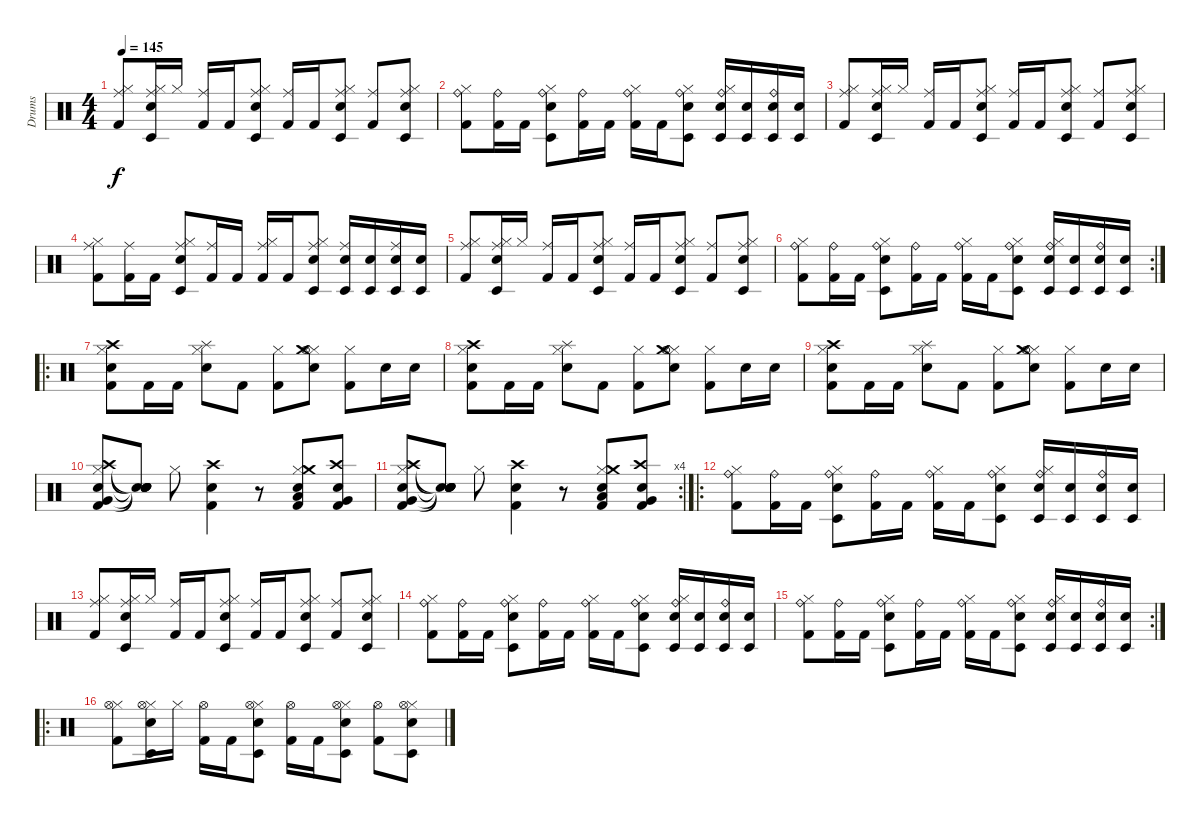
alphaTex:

\track ("Drums" "Drums") {instrument percussion}
\staff {score}
\articulation defaults
\ts (4 4)
\tempo 145
\clef neutral
\ks c
("Kick (hit) 2" "Hi-Hat (closed)" "Ride (middle)").8{dy f} ("Electric Snare (hit)" "Hi-Hat (closed)" "Timbale low (hit)" "Ride (middle)").16 "Hi-Hat (closed)".16 ("Kick (hit) 2" "Ride (middle)").16 "Kick (hit) 2".16 ("Electric Snare (hit)" "Hi-Hat (closed)" "Timbale low (hit)" "Ride (middle)").8 ("Kick (hit) 2" "Ride (middle)").16 "Kick (hit) 2".16 ("Electric Snare (hit)" "Hi-Hat (closed)" "Timbale low (hit)" "Ride (middle)").8 ("Kick (hit) 2" "Ride (middle)").8 ("Electric Snare (hit)" "Hi-Hat (closed)" "Timbale low (hit)" "Ride (middle)").8 |
("Kick (hit) 2" "Hi-Hat (closed)" "Ride (bell)").8 ("Kick (hit) 2" "Ride (bell)").16 "Kick (hit) 2".16 ("Electric Snare (hit)" "Hi-Hat (closed)" "Ride (bell)" "Timbale low (hit)").8 ("Kick (hit) 2" "Ride (bell)").16 "Kick (hit) 2".16 ("Kick (hit) 2" "Hi-Hat (closed)" "Ride (bell)").16 "Kick (hit) 2".16 ("Electric Snare (hit)" "Hi-Hat (closed)" "Timbale low (hit)" "Ride (bell)").8 ("Hi-Hat (closed)" "Electric Snare (hit)" "Timbale low (hit)" "Ride (bell)").16 ("Electric Snare (hit)" "Timbale low (hit)").16 ("Electric Snare (hit)" "Timbale low (hit)" "Ride (bell)").16 ("Electric Snare (hit)" "Timbale low (hit)").16 |
("Kick (hit) 2" "Hi-Hat (closed)" "Ride (middle)").8 ("Electric Snare (hit)" "Hi-Hat (closed)" "Timbale low (hit)" "Ride (middle)").16 "Hi-Hat (closed)".16 ("Kick (hit) 2" "Ride (middle)").16 "Kick (hit) 2".16 ("Electric Snare (hit)" "Hi-Hat (closed)" "Timbale low (hit)" "Ride (middle)").8 ("Kick (hit) 2" "Ride (middle)").16 "Kick (hit) 2".16 ("Electric Snare (hit)" "Hi-Hat (closed)" "Timbale low (hit)" "Ride (middle)").8 ("Kick (hit) 2" "Ride (middle)").8 ("Electric Snare (hit)" "Hi-Hat (closed)" "Timbale low (hit)" "Ride (middle)").8 |
("Kick (hit) 2" "Hi-Hat (closed)" "Ride (middle)").8 ("Kick (hit) 2" "Ride (middle)").16 "Kick (hit) 2".16 ("Electric Snare (hit)" "Hi-Hat (closed)" "Timbale low (hit)" "Ride (middle)").8 ("Kick (hit) 2" "Ride (middle)").16 "Kick (hit) 2".16 ("Kick (hit) 2" "Hi-Hat (closed)" "Ride (middle)").16 "Kick (hit) 2".16 ("Electric Snare (hit)" "Hi-Hat (closed)" "Ride (middle)" "Timbale low (hit)").8 ("Electric Snare (hit)" "Timbale low (hit)" "Ride (middle)").16 ("Electric Snare (hit)" "Timbale low (hit)").16 ("Electric Snare (hit)" "Timbale low (hit)" "Ride (middle)").16 ("Electric Snare (hit)" "Timbale low (hit)").16 |
("Kick (hit) 2" "Hi-Hat (closed)" "Ride (middle)").8 ("Electric Snare (hit)" "Hi-Hat (closed)" "Timbale low (hit)" "Ride (middle)").16 "Hi-Hat (closed)".16 ("Kick (hit) 2" "Ride (middle)").16 "Kick (hit) 2".16 ("Electric Snare (hit)" "Hi-Hat (closed)" "Timbale low (hit)" "Ride (middle)").8 ("Kick (hit) 2" "Ride (middle)").16 "Kick (hit) 2".16 ("Electric Snare (hit)" "Hi-Hat (closed)" "Timbale low (hit)" "Ride (middle)").8 ("Kick (hit) 2" "Ride (middle)").8 ("Electric Snare (hit)" "Hi-Hat (closed)" "Timbale low (hit)" "Ride (middle)").8 |
\rc 2
("Kick (hit) 2" "Hi-Hat (closed)" "Ride (bell)").8 ("Kick (hit) 2" "Ride (bell)").16 "Kick (hit) 2".16 ("Electric Snare (hit)" "Hi-Hat (closed)" "Ride (bell)" "Timbale low (hit)").8 ("Kick (hit) 2" "Ride (bell)").16 "Kick (hit) 2".16 ("Kick (hit) 2" "Hi-Hat (closed)" "Ride (bell)").16 "Kick (hit) 2".16 ("Electric Snare (hit)" "Hi-Hat (closed)" "Timbale low (hit)" "Ride (bell)").8 ("Hi-Hat (closed)" "Electric Snare (hit)" "Timbale low (hit)" "Ride (bell)").16 ("Electric Snare (hit)" "Timbale low (hit)").16 ("Electric Snare (hit)" "Timbale low (hit)" "Ride (bell)").16 ("Electric Snare (hit)" "Timbale low (hit)").16 |
\ro
("Hi-Hat (closed)" "Crash high (hit)" "Electric Snare (hit)" "Kick (hit) 2").8 "Kick (hit) 2".16 "Kick (hit) 2".16 ("Hi-Hat (closed)" "Splash (hit)" "Electric Snare (hit)").8 "Kick (hit) 2".8 ("Hi-Hat (closed)" "Kick (hit) 2").8 ("Hi-Hat (closed)" "Crash medium (hit)" "Electric Snare (hit)" "Hi-Hat (open)").8 ("Hi-Hat (closed)" "Kick (hit) 2").8 "Electric Snare (hit)".16 "Electric Snare (hit)".16 |
("Hi-Hat (closed)" "Crash high (hit)" "Electric Snare (hit)" "Kick (hit) 2").8 "Kick (hit) 2".16 "Kick (hit) 2".16 ("Hi-Hat (closed)" "Splash (hit)" "Electric Snare (hit)").8 "Kick (hit) 2".8 ("Hi-Hat (closed)" "Kick (hit) 2").8 ("Hi-Hat (closed)" "Crash medium (hit)" "Electric Snare (hit)" "Hi-Hat (open)").8 ("Hi-Hat (closed)" "Kick (hit) 2").8 "Electric Snare (hit)".16 "Electric Snare (hit)".16 |
("Hi-Hat (closed)" "Crash high (hit)" "Electric Snare (hit)" "Kick (hit) 2").8 "Kick (hit) 2".16 "Kick (hit) 2".16 ("Hi-Hat (closed)" "Splash (hit)" "Electric Snare (hit)").8 "Kick (hit) 2".8 ("Hi-Hat (closed)" "Kick (hit) 2").8 ("Hi-Hat (closed)" "Crash medium (hit)" "Electric Snare (hit)" "Hi-Hat (open)").8 ("Hi-Hat (closed)" "Kick (hit) 2").8 "Electric Snare (hit)".16 "Electric Snare (hit)".16 |
("Hi-Hat (closed)" "Crash high (hit)" "Electric Snare (hit)" "Kick (hit) 2" "Very Low Tom (hit)").8 ("Snare (hit)"{t} "Snare (hit)"{t} "Snare (hit)"{t} "Snare (hit)"{t} "Snare (hit)"{t}).8 "Hi-Hat (closed)".8 ("Electric Snare (hit)" "Crash high (hit)" "Kick (hit) 2").4 r.8 ("Hi-Hat (closed)" "Crash medium (hit)" "Electric Snare (hit)" "Kick (hit) 2" "Low Tom (hit)").8 ("Crash high (hit)" "Electric Snare (hit)" "Kick (hit) 2" "Very Low Tom (hit)").8 |
\rc 4
("Hi-Hat (closed)" "Crash high (hit)" "Electric Snare (hit)" "Kick (hit) 2" "Very Low Tom (hit)").8 ("Snare (hit)"{t} "Snare (hit)"{t} "Snare (hit)"{t} "Snare (hit)"{t} "Snare (hit)"{t}).8 "Hi-Hat (closed)".8 ("Electric Snare (hit)" "Crash high (hit)" "Kick (hit) 2").4 r.8 ("Hi-Hat (closed)" "Crash medium (hit)" "Electric Snare (hit)" "Kick (hit) 2" "Low Tom (hit)").8 ("Crash high (hit)" "Electric Snare (hit)" "Kick (hit) 2" "Very Low Tom (hit)").8 |
\ro
("Kick (hit) 2" "Hi-Hat (closed)" "Ride (bell)").8 ("Kick (hit) 2" "Ride (bell)").16 "Kick (hit) 2".16 ("Electric Snare (hit)" "Hi-Hat (closed)" "Ride (bell)" "Timbale low (hit)").8 ("Kick (hit) 2" "Ride (bell)").16 "Kick (hit) 2".16 ("Kick (hit) 2" "Hi-Hat (closed)" "Ride (bell)").16 "Kick (hit) 2".16 ("Electric Snare (hit)" "Hi-Hat (closed)" "Timbale low (hit)" "Ride (bell)").8 ("Hi-Hat (closed)" "Electric Snare (hit)" "Timbale low (hit)" "Ride (bell)").16 ("Electric Snare (hit)" "Timbale low (hit)").16 ("Electric Snare (hit)" "Timbale low (hit)" "Ride (bell)").16 ("Electric Snare (hit)" "Timbale low (hit)").16 |
("Kick (hit) 2" "Hi-Hat (closed)" "Ride (middle)").8 ("Electric Snare (hit)" "Hi-Hat (closed)" "Timbale low (hit)" "Ride (middle)").16 "Hi-Hat (closed)".16 ("Kick (hit) 2" "Ride (middle)").16 "Kick (hit) 2".16 ("Electric Snare (hit)" "Hi-Hat (closed)" "Timbale low (hit)" "Ride (middle)").8 ("Kick (hit) 2" "Ride (middle)").16 "Kick (hit) 2".16 ("Electric Snare (hit)" "Hi-Hat (closed)" "Timbale low (hit)" "Ride (middle)").8 ("Kick (hit) 2" "Ride (middle)").8 ("Electric Snare (hit)" "Hi-Hat (closed)" "Timbale low (hit)" "Ride (middle)").8 |
("Kick (hit) 2" "Hi-Hat (closed)" "Ride (bell)").8 ("Kick (hit) 2" "Ride (bell)").16 "Kick (hit) 2".16 ("Electric Snare (hit)" "Hi-Hat (closed)" "Ride (bell)" "Timbale low (hit)").8 ("Kick (hit) 2" "Ride (bell)").16 "Kick (hit) 2".16 ("Kick (hit) 2" "Hi-Hat (closed)" "Ride (bell)").16 "Kick (hit) 2".16 ("Electric Snare (hit)" "Hi-Hat (closed)" "Timbale low (hit)" "Ride (bell)").8 ("Hi-Hat (closed)" "Electric Snare (hit)" "Timbale low (hit)" "Ride (bell)").16 ("Electric Snare (hit)" "Timbale low (hit)").16 ("Electric Snare (hit)" "Timbale low (hit)" "Ride (bell)").16 ("Electric Snare (hit)" "Timbale low (hit)").16 |
\rc 2
("Kick (hit) 2" "Hi-Hat (closed)" "Ride (bell)").8 ("Kick (hit) 2" "Ride (bell)").16 "Kick (hit) 2".16 ("Electric Snare (hit)" "Hi-Hat (closed)" "Ride (bell)" "Timbale low (hit)").8 ("Kick (hit) 2" "Ride (bell)").16 "Kick (hit) 2".16 ("Kick (hit) 2" "Hi-Hat (closed)" "Ride (bell)").16 "Kick (hit) 2".16 ("Electric Snare (hit)" "Hi-Hat (closed)" "Timbale low (hit)" "Ride (bell)").8 ("Hi-Hat (closed)" "Electric Snare (hit)" "Timbale low (hit)" "Ride (bell)").16 ("Electric Snare (hit)" "Timbale low (hit)").16 ("Electric Snare (hit)" "Timbale low (hit)" "Ride (bell)").16 ("Electric Snare (hit)" "Timbale low (hit)").16 |
\ro
("Kick (hit) 2" "Hi-Hat (closed)" "Hi-Hat (open)").8 ("Electric Snare (hit)" "Hi-Hat (closed)" "Timbale low (hit)" "Hi-Hat (open)").16 "Hi-Hat (closed)".16 ("Kick (hit) 2" "Hi-Hat (open)").16 "Kick (hit) 2".16 ("Electric Snare (hit)" "Hi-Hat (closed)" "Timbale low (hit)" "Hi-Hat (open)").8 ("Kick (hit) 2" "Hi-Hat (open)").16 "Kick (hit) 2".16 ("Electric Snare (hit)" "Hi-Hat (closed)" "Timbale low (hit)" "Hi-Hat (open)").8 ("Kick (hit) 2" "Hi-Hat (open)").8 ("Electric Snare (hit)" "Hi-Hat (closed)" "Timbale low (hit)" "Hi-Hat (open)").8
